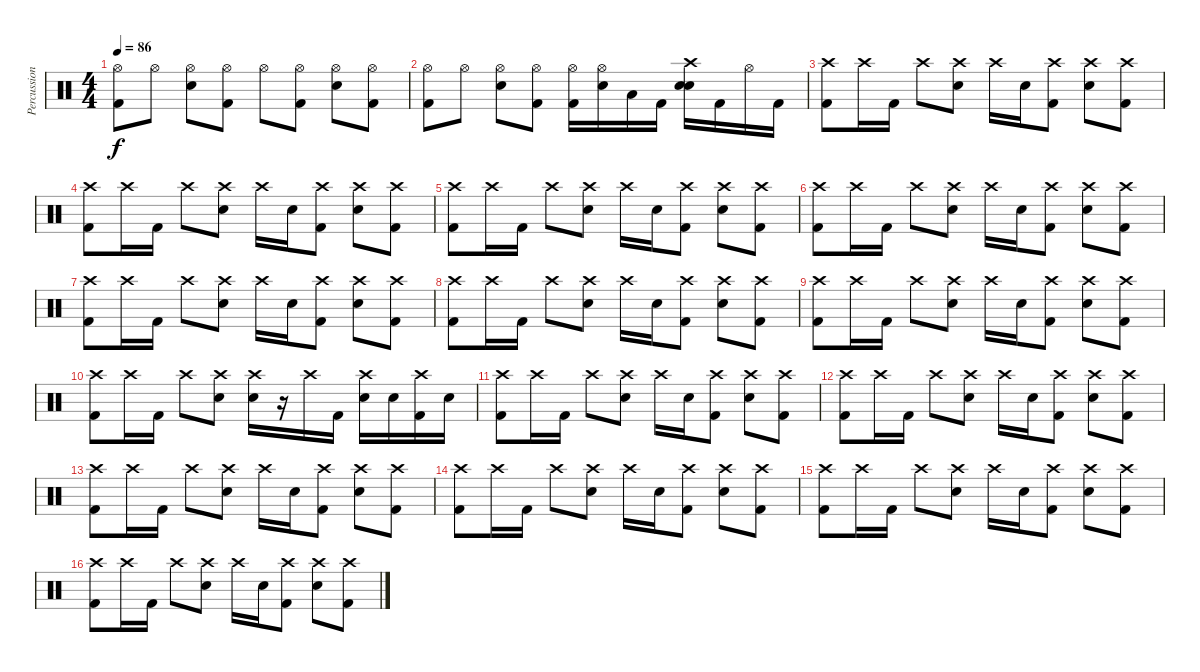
\track ("Percussions" "Percussion") {instrument percussion}
\staff {score}
\articulation defaults
\ts (4 4)
\tempo 86
\clef neutral
\ks c
("Hi-Hat (open)" "Kick (hit) 2").8{dy f} "Hi-Hat (open)".8 ("Hi-Hat (open)" "Electric Snare (hit)").8 ("Hi-Hat (open)" "Kick (hit) 2").8 "Hi-Hat (open)".8 ("Hi-Hat (open)" "Kick (hit) 2").8 ("Hi-Hat (open)" "Electric Snare (hit)").8 ("Hi-Hat (open)" "Kick (hit) 2").8 |
("Hi-Hat (open)" "Kick (hit) 2").8 "Hi-Hat (open)".8 ("Hi-Hat (open)" "Electric Snare (hit)").8 ("Hi-Hat (open)" "Kick (hit) 2").8 ("Hi-Hat (open)" "Kick (hit) 2").16 ("Hi-Hat (open)" "Electric Snare (hit)").16 "Low Tom (hit)".16 "Kick (hit) 2".16 ("Crash high (hit)" "Electric Snare (hit)" "Electric Snare (hit)").16 "Kick (hit) 2".16 "Hi-Hat (open)".16 "Kick (hit) 2".16 |
("Crash high (hit)" "Kick (hit) 2").8 "Crash high (hit)".16 "Kick (hit) 2".16 "Crash high (hit)".8 ("Crash high (hit)" "Electric Snare (hit)").8 "Crash high (hit)".16 "Electric Snare (hit)".16 ("Crash high (hit)" "Kick (hit) 2").8 ("Crash high (hit)" "Electric Snare (hit)").8 ("Crash high (hit)" "Kick (hit) 2").8 |
("Crash high (hit)" "Kick (hit) 2").8 "Crash high (hit)".16 "Kick (hit) 2".16 "Crash high (hit)".8 ("Crash high (hit)" "Electric Snare (hit)").8 "Crash high (hit)".16 "Electric Snare (hit)".16 ("Crash high (hit)" "Kick (hit) 2").8 ("Crash high (hit)" "Electric Snare (hit)").8 ("Crash high (hit)" "Kick (hit) 2").8 |
("Crash high (hit)" "Kick (hit) 2").8 "Crash high (hit)".16 "Kick (hit) 2".16 "Crash high (hit)".8 ("Crash high (hit)" "Electric Snare (hit)").8 "Crash high (hit)".16 "Electric Snare (hit)".16 ("Crash high (hit)" "Kick (hit) 2").8 ("Crash high (hit)" "Electric Snare (hit)").8 ("Crash high (hit)" "Kick (hit) 2").8 |
("Crash high (hit)" "Kick (hit) 2").8 "Crash high (hit)".16 "Kick (hit) 2".16 "Crash high (hit)".8 ("Crash high (hit)" "Electric Snare (hit)").8 "Crash high (hit)".16 "Electric Snare (hit)".16 ("Crash high (hit)" "Kick (hit) 2").8 ("Crash high (hit)" "Electric Snare (hit)").8 ("Crash high (hit)" "Kick (hit) 2").8 |
("Crash high (hit)" "Kick (hit) 2").8 "Crash high (hit)".16 "Kick (hit) 2".16 "Crash high (hit)".8 ("Crash high (hit)" "Electric Snare (hit)").8 "Crash high (hit)".16 "Electric Snare (hit)".16 ("Crash high (hit)" "Kick (hit) 2").8 ("Crash high (hit)" "Electric Snare (hit)").8 ("Crash high (hit)" "Kick (hit) 2").8 |
("Crash high (hit)" "Kick (hit) 2").8 "Crash high (hit)".16 "Kick (hit) 2".16 "Crash high (hit)".8 ("Crash high (hit)" "Electric Snare (hit)").8 "Crash high (hit)".16 "Electric Snare (hit)".16 ("Crash high (hit)" "Kick (hit) 2").8 ("Crash high (hit)" "Electric Snare (hit)").8 ("Crash high (hit)" "Kick (hit) 2").8 |
("Crash high (hit)" "Kick (hit) 2").8 "Crash high (hit)".16 "Kick (hit) 2".16 "Crash high (hit)".8 ("Crash high (hit)" "Electric Snare (hit)").8 "Crash high (hit)".16 "Electric Snare (hit)".16 ("Crash high (hit)" "Kick (hit) 2").8 ("Crash high (hit)" "Electric Snare (hit)").8 ("Crash high (hit)" "Kick (hit) 2").8 |
("Crash high (hit)" "Kick (hit) 2").8 "Crash high (hit)".16 "Kick (hit) 2".16 "Crash high (hit)".8 ("Crash high (hit)" "Electric Snare (hit)").8 ("Crash high (hit)" "Electric Snare (hit)").16 r.16 "Crash high (hit)".16 "Kick (hit) 2".16 ("Crash high (hit)" "Electric Snare (hit)").16 "Electric Snare (hit)".16 ("Crash high (hit)" "Kick (hit) 2").16 "Electric Snare (hit)".16 |
("Crash high (hit)" "Kick (hit) 2").8 "Crash high (hit)".16 "Kick (hit) 2".16 "Crash high (hit)".8 ("Crash high (hit)" "Electric Snare (hit)").8 "Crash high (hit)".16 "Electric Snare (hit)".16 ("Crash high (hit)" "Kick (hit) 2").8 ("Crash high (hit)" "Electric Snare (hit)").8 ("Crash high (hit)" "Kick (hit) 2").8 |
("Crash high (hit)" "Kick (hit) 2").8 "Crash high (hit)".16 "Kick (hit) 2".16 "Crash high (hit)".8 ("Crash high (hit)" "Electric Snare (hit)").8 "Crash high (hit)".16 "Electric Snare (hit)".16 ("Crash high (hit)" "Kick (hit) 2").8 ("Crash high (hit)" "Electric Snare (hit)").8 ("Crash high (hit)" "Kick (hit) 2").8 |
("Crash high (hit)" "Kick (hit) 2").8 "Crash high (hit)".16 "Kick (hit) 2".16 "Crash high (hit)".8 ("Crash high (hit)" "Electric Snare (hit)").8 "Crash high (hit)".16 "Electric Snare (hit)".16 ("Crash high (hit)" "Kick (hit) 2").8 ("Crash high (hit)" "Electric Snare (hit)").8 ("Crash high (hit)" "Kick (hit) 2").8 |
("Crash high (hit)" "Kick (hit) 2").8 "Crash high (hit)".16 "Kick (hit) 2".16 "Crash high (hit)".8 ("Crash high (hit)" "Electric Snare (hit)").8 "Crash high (hit)".16 "Electric Snare (hit)".16 ("Crash high (hit)" "Kick (hit) 2").8 ("Crash high (hit)" "Electric Snare (hit)").8 ("Crash high (hit)" "Kick (hit) 2").8 |
("Crash high (hit)" "Kick (hit) 2").8 "Crash high (hit)".16 "Kick (hit) 2".16 "Crash high (hit)".8 ("Crash high (hit)" "Electric Snare (hit)").8 "Crash high (hit)".16 "Electric Snare (hit)".16 ("Crash high (hit)" "Kick (hit) 2").8 ("Crash high (hit)" "Electric Snare (hit)").8 ("Crash high (hit)" "Kick (hit) 2").8 |
("Crash high (hit)" "Kick (hit) 2").8 "Crash high (hit)".16 "Kick (hit) 2".16 "Crash high (hit)".8 ("Crash high (hit)" "Electric Snare (hit)").8 "Crash high (hit)".16 "Electric Snare (hit)".16 ("Crash high (hit)" "Kick (hit) 2").8 ("Crash high (hit)" "Electric Snare (hit)").8 ("Crash high (hit)" "Kick (hit) 2").8
